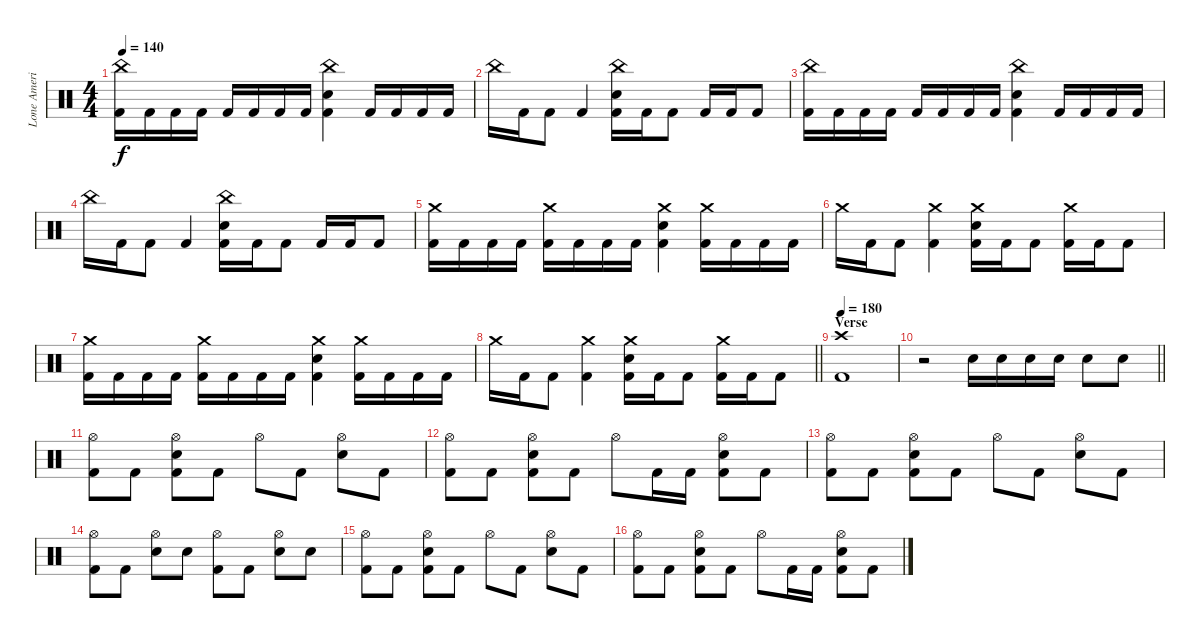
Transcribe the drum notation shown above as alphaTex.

\track ("Lone America" "Lone Ameri") {instrument percussion}
\staff {score}
\articulation defaults
\ts (4 4)
\tempo 140
\clef neutral
\ks c
("China (hit)" "Kick (hit) 2").16{dy f} "Kick (hit) 2".16 "Kick (hit) 2".16 "Kick (hit) 2".16 "Kick (hit) 2".16 "Kick (hit) 2".16 "Kick (hit) 2".16 "Kick (hit) 2".16 ("China (hit)" "Electric Snare (hit)" "Kick (hit) 2").4 "Kick (hit) 2".16 "Kick (hit) 2".16 "Kick (hit) 2".16 "Kick (hit) 2".16 |
"China (hit)".16 "Kick (hit) 2".16 "Kick (hit) 2".8 "Kick (hit) 2".4 ("China (hit)" "Electric Snare (hit)" "Kick (hit) 2").16 "Kick (hit) 2".16 "Kick (hit) 2".8 "Kick (hit) 2".16 "Kick (hit) 2".16 "Kick (hit) 2".8 |
("China (hit)" "Kick (hit) 2").16 "Kick (hit) 2".16 "Kick (hit) 2".16 "Kick (hit) 2".16 "Kick (hit) 2".16 "Kick (hit) 2".16 "Kick (hit) 2".16 "Kick (hit) 2".16 ("China (hit)" "Electric Snare (hit)" "Kick (hit) 2").4 "Kick (hit) 2".16 "Kick (hit) 2".16 "Kick (hit) 2".16 "Kick (hit) 2".16 |
"China (hit)".16 "Kick (hit) 2".16 "Kick (hit) 2".8 "Kick (hit) 2".4 ("China (hit)" "Electric Snare (hit)" "Kick (hit) 2").16 "Kick (hit) 2".16 "Kick (hit) 2".8 "Kick (hit) 2".16 "Kick (hit) 2".16 "Kick (hit) 2".8 |
("Crash medium (hit)" "Kick (hit) 2").16 "Kick (hit) 2".16 "Kick (hit) 2".16 "Kick (hit) 2".16 ("Crash medium (hit)" "Kick (hit) 2").16 "Kick (hit) 2".16 "Kick (hit) 2".16 "Kick (hit) 2".16 ("Crash medium (hit)" "Electric Snare (hit)" "Kick (hit) 2").4 ("Crash medium (hit)" "Kick (hit) 2").16 "Kick (hit) 2".16 "Kick (hit) 2".16 "Kick (hit) 2".16 |
"Crash medium (hit)".16 "Kick (hit) 2".16 "Kick (hit) 2".8 ("Crash medium (hit)" "Kick (hit) 2").4 ("Crash medium (hit)" "Electric Snare (hit)" "Kick (hit) 2").16 "Kick (hit) 2".16 "Kick (hit) 2".8 ("Crash medium (hit)" "Kick (hit) 2").16 "Kick (hit) 2".16 "Kick (hit) 2".8 |
("Crash medium (hit)" "Kick (hit) 2").16 "Kick (hit) 2".16 "Kick (hit) 2".16 "Kick (hit) 2".16 ("Crash medium (hit)" "Kick (hit) 2").16 "Kick (hit) 2".16 "Kick (hit) 2".16 "Kick (hit) 2".16 ("Crash medium (hit)" "Electric Snare (hit)" "Kick (hit) 2").4 ("Crash medium (hit)" "Kick (hit) 2").16 "Kick (hit) 2".16 "Kick (hit) 2".16 "Kick (hit) 2".16 |
\barLineRight lightlight "Crash medium (hit)".16 "Kick (hit) 2".16 "Kick (hit) 2".8
("Crash medium (hit)" "Kick (hit) 2").4 ("Crash medium (hit)" "Electric Snare (hit)" "Kick (hit) 2").16 "Kick (hit) 2".16 "Kick (hit) 2".8 ("Crash medium (hit)" "Kick (hit) 2").16 "Kick (hit) 2".16 "Kick (hit) 2".8 |
\section ("" "Verse")
\tempo 180
("Crash high (hit)" "Kick (hit) 2").1 |
\barLineRight lightlight
r.2 "Electric Snare (hit)".16 "Electric Snare (hit)".16 "Electric Snare (hit)".16 "Electric Snare (hit)".16 "Electric Snare (hit)".8 "Electric Snare (hit)".8 |
("Hi-Hat (open)" "Kick (hit) 2").8 "Kick (hit) 2".8 ("Hi-Hat (open)" "Electric Snare (hit)" "Kick (hit) 2").8 "Kick (hit) 2".8 "Hi-Hat (open)".8 "Kick (hit) 2".8 ("Hi-Hat (open)" "Electric Snare (hit)").8 "Kick (hit) 2".8 |
("Hi-Hat (open)" "Kick (hit) 2").8 "Kick (hit) 2".8 ("Hi-Hat (open)" "Electric Snare (hit)" "Kick (hit) 2").8 "Kick (hit) 2".8 "Hi-Hat (open)".8 "Kick (hit) 2".16 "Kick (hit) 2".16 ("Hi-Hat (open)" "Electric Snare (hit)" "Kick (hit) 2").8 "Kick (hit) 2".8 |
("Hi-Hat (open)" "Kick (hit) 2").8 "Kick (hit) 2".8 ("Hi-Hat (open)" "Electric Snare (hit)" "Kick (hit) 2").8 "Kick (hit) 2".8 "Hi-Hat (open)".8 "Kick (hit) 2".8 ("Hi-Hat (open)" "Electric Snare (hit)").8 "Kick (hit) 2".8 |
("Hi-Hat (open)" "Kick (hit) 2").8 "Kick (hit) 2".8 ("Hi-Hat (open)" "Electric Snare (hit)").8 "Electric Snare (hit)".8 ("Hi-Hat (open)" "Kick (hit) 2").8 "Kick (hit) 2".8 ("Hi-Hat (open)" "Electric Snare (hit)").8 "Electric Snare (hit)".8 |
("Hi-Hat (open)" "Kick (hit) 2").8 "Kick (hit) 2".8 ("Hi-Hat (open)" "Electric Snare (hit)" "Kick (hit) 2").8 "Kick (hit) 2".8 "Hi-Hat (open)".8 "Kick (hit) 2".8 ("Hi-Hat (open)" "Electric Snare (hit)").8 "Kick (hit) 2".8 |
("Hi-Hat (open)" "Kick (hit) 2").8 "Kick (hit) 2".8 ("Hi-Hat (open)" "Electric Snare (hit)" "Kick (hit) 2").8 "Kick (hit) 2".8 "Hi-Hat (open)".8 "Kick (hit) 2".16 "Kick (hit) 2".16 ("Hi-Hat (open)" "Electric Snare (hit)" "Kick (hit) 2").8 "Kick (hit) 2".8
